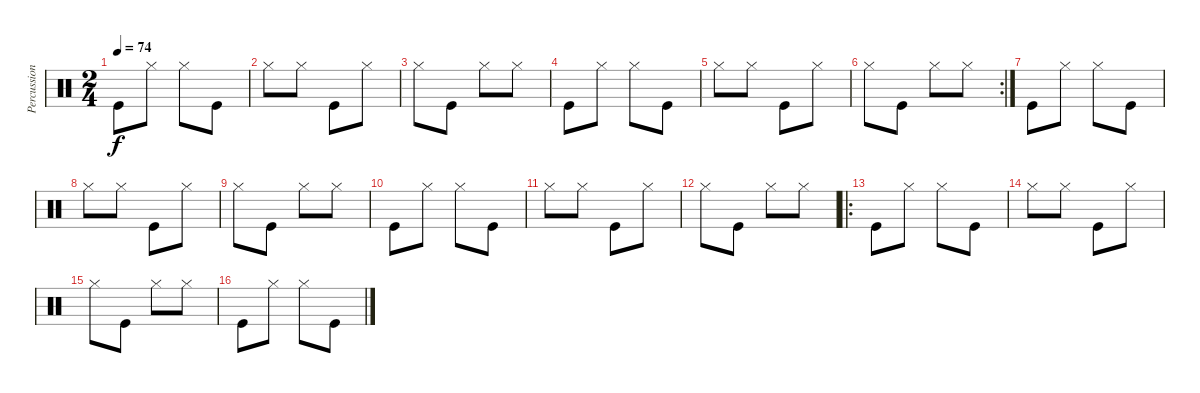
\track ("Percussion" "Percussion") {instrument percussion}
\staff {score}
\articulation defaults
\ts (2 4)
\tempo 74
\clef neutral
\ks c "Kick (hit)".8{dy f} "Hi-Hat (closed)".8 "Hi-Hat (closed)".8 "Kick (hit)".8
|
"Hi-Hat (closed)".8 "Hi-Hat (closed)".8 "Kick (hit)".8 "Hi-Hat (closed)".8 |
"Hi-Hat (closed)".8 "Kick (hit)".8 "Hi-Hat (closed)".8 "Hi-Hat (closed)".8 |
"Kick (hit)".8 "Hi-Hat (closed)".8 "Hi-Hat (closed)".8 "Kick (hit)".8 |
"Hi-Hat (closed)".8 "Hi-Hat (closed)".8 "Kick (hit)".8 "Hi-Hat (closed)".8 |
\rc 2 "Hi-Hat (closed)".8 "Kick (hit)".8 "Hi-Hat (closed)".8 "Hi-Hat (closed)".8
|
"Kick (hit)".8 "Hi-Hat (closed)".8 "Hi-Hat (closed)".8 "Kick (hit)".8 |
"Hi-Hat (closed)".8 "Hi-Hat (closed)".8 "Kick (hit)".8 "Hi-Hat (closed)".8 |
"Hi-Hat (closed)".8 "Kick (hit)".8 "Hi-Hat (closed)".8 "Hi-Hat (closed)".8 |
"Kick (hit)".8 "Hi-Hat (closed)".8 "Hi-Hat (closed)".8 "Kick (hit)".8 |
"Hi-Hat (closed)".8 "Hi-Hat (closed)".8 "Kick (hit)".8 "Hi-Hat (closed)".8 |
"Hi-Hat (closed)".8 "Kick (hit)".8 "Hi-Hat (closed)".8 "Hi-Hat (closed)".8 |
\ro "Kick (hit)".8 "Hi-Hat (closed)".8 "Hi-Hat (closed)".8 "Kick (hit)".8
|
"Hi-Hat (closed)".8 "Hi-Hat (closed)".8 "Kick (hit)".8 "Hi-Hat (closed)".8 |
"Hi-Hat (closed)".8 "Kick (hit)".8 "Hi-Hat (closed)".8 "Hi-Hat (closed)".8 |
"Kick (hit)".8 "Hi-Hat (closed)".8 "Hi-Hat (closed)".8 "Kick (hit)".8
